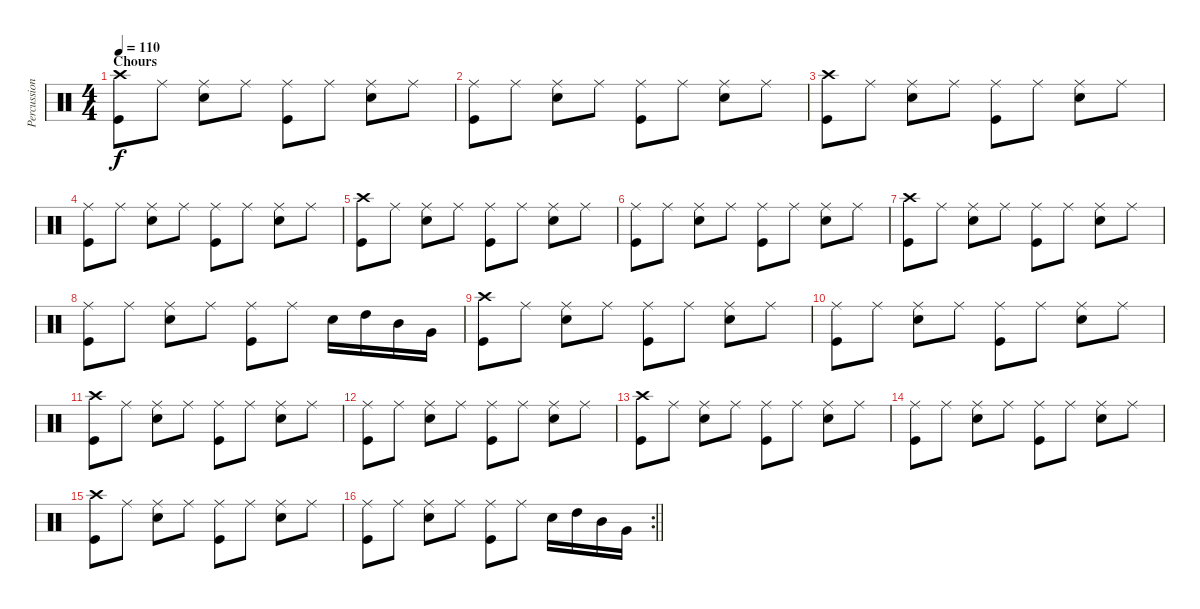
\track ("Percussion" "Percussion") {instrument percussion}
\staff {score}
\articulation defaults
\ts (4 4)
\section ("" "Chours")
\tempo 110
\clef neutral
\ks c
("Crash high (hit)" "Kick (hit)").8{dy f} "Ride (middle)".8 ("Ride (middle)" "Snare (hit) 2").8 "Ride (middle)".8 ("Ride (middle)" "Kick (hit)").8 "Ride (middle)".8 ("Ride (middle)" "Snare (hit) 2").8 "Ride (middle)".8 |
("Ride (middle)" "Kick (hit)").8 "Ride (middle)".8 ("Ride (middle)" "Snare (hit) 2").8 "Ride (middle)".8 ("Ride (middle)" "Kick (hit)").8 "Ride (middle)".8 ("Ride (middle)" "Snare (hit) 2").8 "Ride (middle)".8 |
("Crash high (hit)" "Kick (hit)").8 "Ride (middle)".8 ("Ride (middle)" "Snare (hit) 2").8 "Ride (middle)".8 ("Ride (middle)" "Kick (hit)").8 "Ride (middle)".8 ("Ride (middle)" "Snare (hit) 2").8 "Ride (middle)".8 |
("Ride (middle)" "Kick (hit)").8 "Ride (middle)".8 ("Ride (middle)" "Snare (hit) 2").8 "Ride (middle)".8 ("Ride (middle)" "Kick (hit)").8 "Ride (middle)".8 ("Ride (middle)" "Snare (hit) 2").8 "Ride (middle)".8 |
("Crash high (hit)" "Kick (hit)").8 "Ride (middle)".8 ("Ride (middle)" "Snare (hit) 2").8 "Ride (middle)".8 ("Ride (middle)" "Kick (hit)").8 "Ride (middle)".8 ("Ride (middle)" "Snare (hit) 2").8 "Ride (middle)".8 |
("Ride (middle)" "Kick (hit)").8 "Ride (middle)".8 ("Ride (middle)" "Snare (hit) 2").8 "Ride (middle)".8 ("Ride (middle)" "Kick (hit)").8 "Ride (middle)".8 ("Ride (middle)" "Snare (hit) 2").8 "Ride (middle)".8 |
("Crash high (hit)" "Kick (hit)").8 "Ride (middle)".8 ("Ride (middle)" "Snare (hit) 2").8 "Ride (middle)".8 ("Ride (middle)" "Kick (hit)").8 "Ride (middle)".8 ("Ride (middle)" "Snare (hit) 2").8 "Ride (middle)".8 |
("Ride (middle)" "Kick (hit)").8 "Ride (middle)".8 ("Ride (middle)" "Snare (hit) 2").8 "Ride (middle)".8 ("Ride (middle)" "Kick (hit)").8 "Ride (middle)".8 "Snare (hit) 2".16 "High Tom (hit)".16 "Mid Tom (hit)".16 "Very Low Tom (hit)".16 |
("Crash high (hit)" "Kick (hit)").8 "Ride (middle)".8 ("Ride (middle)" "Snare (hit) 2").8 "Ride (middle)".8 ("Ride (middle)" "Kick (hit)").8 "Ride (middle)".8 ("Ride (middle)" "Snare (hit) 2").8 "Ride (middle)".8 |
("Ride (middle)" "Kick (hit)").8 "Ride (middle)".8 ("Ride (middle)" "Snare (hit) 2").8 "Ride (middle)".8 ("Ride (middle)" "Kick (hit)").8 "Ride (middle)".8 ("Ride (middle)" "Snare (hit) 2").8 "Ride (middle)".8 |
("Crash high (hit)" "Kick (hit)").8 "Ride (middle)".8 ("Ride (middle)" "Snare (hit) 2").8 "Ride (middle)".8 ("Ride (middle)" "Kick (hit)").8 "Ride (middle)".8 ("Ride (middle)" "Snare (hit) 2").8 "Ride (middle)".8 |
("Ride (middle)" "Kick (hit)").8 "Ride (middle)".8 ("Ride (middle)" "Snare (hit) 2").8 "Ride (middle)".8 ("Ride (middle)" "Kick (hit)").8 "Ride (middle)".8 ("Ride (middle)" "Snare (hit) 2").8 "Ride (middle)".8 |
("Crash high (hit)" "Kick (hit)").8 "Ride (middle)".8 ("Ride (middle)" "Snare (hit) 2").8 "Ride (middle)".8 ("Ride (middle)" "Kick (hit)").8 "Ride (middle)".8 ("Ride (middle)" "Snare (hit) 2").8 "Ride (middle)".8 |
("Ride (middle)" "Kick (hit)").8 "Ride (middle)".8 ("Ride (middle)" "Snare (hit) 2").8 "Ride (middle)".8 ("Ride (middle)" "Kick (hit)").8 "Ride (middle)".8 ("Ride (middle)" "Snare (hit) 2").8 "Ride (middle)".8 |
("Crash high (hit)" "Kick (hit)").8 "Ride (middle)".8 ("Ride (middle)" "Snare (hit) 2").8 "Ride (middle)".8 ("Ride (middle)" "Kick (hit)").8 "Ride (middle)".8 ("Ride (middle)" "Snare (hit) 2").8 "Ride (middle)".8 |
\rc 2
\barLineRight lightlight
("Ride (middle)" "Kick (hit)").8 "Ride (middle)".8 ("Ride (middle)" "Snare (hit) 2").8 "Ride (middle)".8 ("Ride (middle)" "Kick (hit)").8 "Ride (middle)".8 "Snare (hit) 2".16 "High Tom (hit)".16 "Mid Tom (hit)".16 "Very Low Tom (hit)".16
